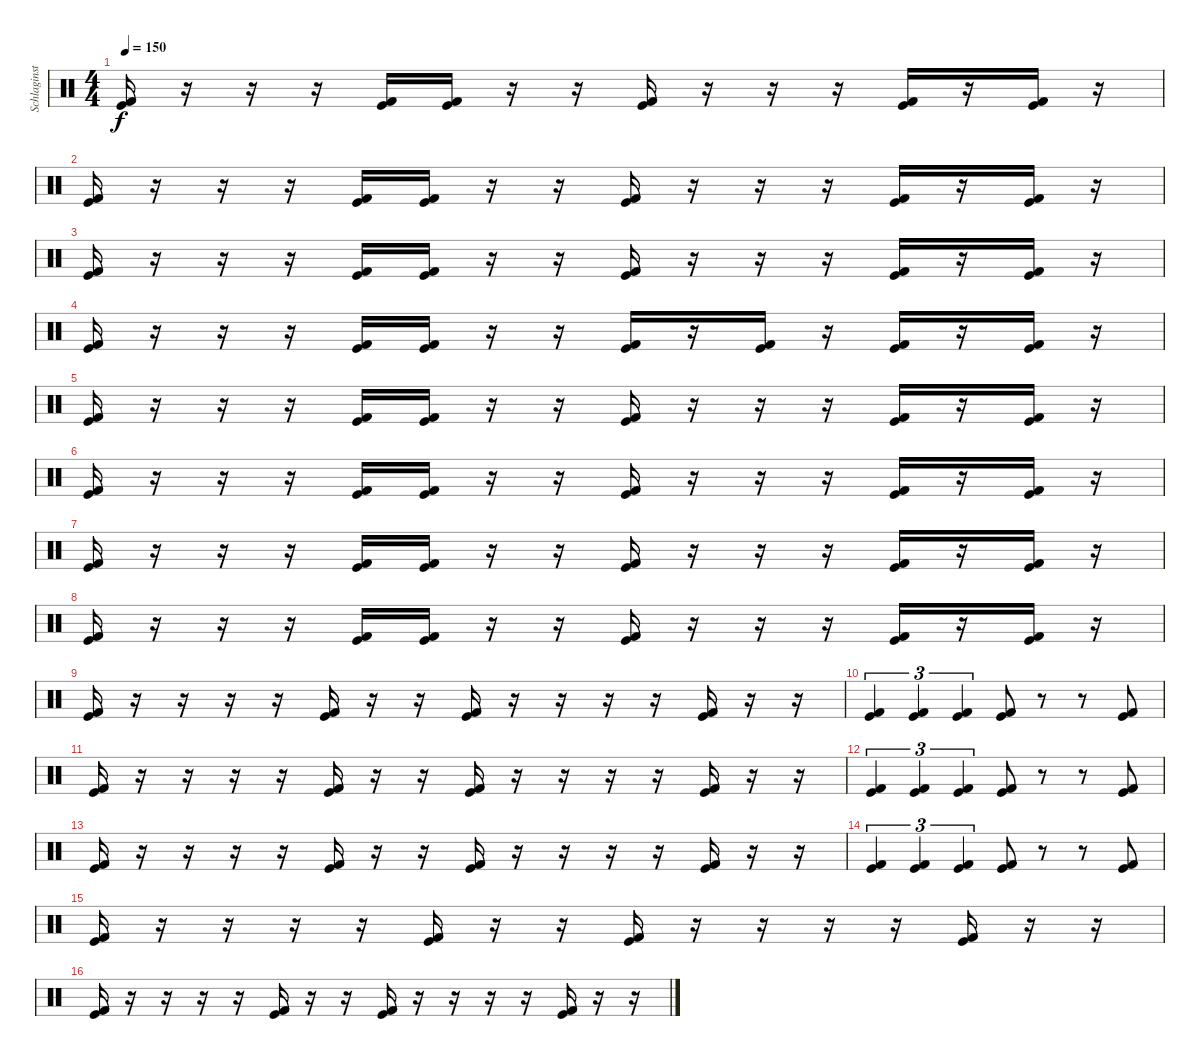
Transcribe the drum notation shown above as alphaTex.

\track ("Schlaginstrumente - Auswahl" "Schlaginst") {instrument percussion}
\staff {score}
\articulation defaults
\ts (4 4)
\tempo 150
\clef neutral
\ks c
("Kick (hit)" "Kick (hit) 2").16{dy f} r.16 r.16 r.16 ("Kick (hit)" "Kick (hit) 2").16 ("Kick (hit)" "Kick (hit) 2").16 r.16 r.16 ("Kick (hit)" "Kick (hit) 2").16 r.16 r.16 r.16 ("Kick (hit)" "Kick (hit) 2").16 r.16 ("Kick (hit)" "Kick (hit) 2").16 r.16 |
("Kick (hit)" "Kick (hit) 2").16 r.16 r.16 r.16 ("Kick (hit)" "Kick (hit) 2").16 ("Kick (hit)" "Kick (hit) 2").16 r.16 r.16 ("Kick (hit)" "Kick (hit) 2").16 r.16 r.16 r.16 ("Kick (hit)" "Kick (hit) 2").16 r.16 ("Kick (hit)" "Kick (hit) 2").16 r.16 |
("Kick (hit)" "Kick (hit) 2").16 r.16 r.16 r.16 ("Kick (hit)" "Kick (hit) 2").16 ("Kick (hit)" "Kick (hit) 2").16 r.16 r.16 ("Kick (hit)" "Kick (hit) 2").16 r.16 r.16 r.16 ("Kick (hit)" "Kick (hit) 2").16 r.16 ("Kick (hit)" "Kick (hit) 2").16 r.16 |
("Kick (hit)" "Kick (hit) 2").16 r.16 r.16 r.16 ("Kick (hit)" "Kick (hit) 2").16 ("Kick (hit)" "Kick (hit) 2").16 r.16 r.16 ("Kick (hit)" "Kick (hit) 2").16 r.16 ("Kick (hit)" "Kick (hit) 2").16 r.16 ("Kick (hit)" "Kick (hit) 2").16 r.16 ("Kick (hit)" "Kick (hit) 2").16 r.16 |
("Kick (hit)" "Kick (hit) 2").16 r.16 r.16 r.16 ("Kick (hit)" "Kick (hit) 2").16 ("Kick (hit)" "Kick (hit) 2").16 r.16 r.16 ("Kick (hit)" "Kick (hit) 2").16 r.16 r.16 r.16 ("Kick (hit)" "Kick (hit) 2").16 r.16 ("Kick (hit)" "Kick (hit) 2").16 r.16 |
("Kick (hit)" "Kick (hit) 2").16 r.16 r.16 r.16 ("Kick (hit)" "Kick (hit) 2").16 ("Kick (hit)" "Kick (hit) 2").16 r.16 r.16 ("Kick (hit)" "Kick (hit) 2").16 r.16 r.16 r.16 ("Kick (hit)" "Kick (hit) 2").16 r.16 ("Kick (hit)" "Kick (hit) 2").16 r.16 |
("Kick (hit)" "Kick (hit) 2").16 r.16 r.16 r.16 ("Kick (hit)" "Kick (hit) 2").16 ("Kick (hit)" "Kick (hit) 2").16 r.16 r.16 ("Kick (hit)" "Kick (hit) 2").16 r.16 r.16 r.16 ("Kick (hit)" "Kick (hit) 2").16 r.16 ("Kick (hit)" "Kick (hit) 2").16 r.16 |
("Kick (hit)" "Kick (hit) 2").16 r.16 r.16 r.16 ("Kick (hit)" "Kick (hit) 2").16 ("Kick (hit)" "Kick (hit) 2").16 r.16 r.16 ("Kick (hit)" "Kick (hit) 2").16 r.16 r.16 r.16 ("Kick (hit)" "Kick (hit) 2").16 r.16 ("Kick (hit)" "Kick (hit) 2").16 r.16 |
("Kick (hit)" "Kick (hit) 2").16 r.16 r.16 r.16 r.16 ("Kick (hit)" "Kick (hit) 2").16 r.16 r.16 ("Kick (hit)" "Kick (hit) 2").16 r.16 r.16 r.16 r.16 ("Kick (hit)" "Kick (hit) 2").16 r.16 r.16 |
("Kick (hit)" "Kick (hit) 2").4{tu (3 2)} ("Kick (hit)" "Kick (hit) 2").4{tu (3 2)} ("Kick (hit)" "Kick (hit) 2").4{tu (3 2)} ("Kick (hit)" "Kick (hit) 2").8 r.8 r.8 ("Kick (hit)" "Kick (hit) 2").8 |
("Kick (hit)" "Kick (hit) 2").16 r.16 r.16 r.16 r.16 ("Kick (hit)" "Kick (hit) 2").16 r.16 r.16 ("Kick (hit)" "Kick (hit) 2").16 r.16 r.16 r.16 r.16 ("Kick (hit)" "Kick (hit) 2").16 r.16 r.16 |
("Kick (hit)" "Kick (hit) 2").4{tu (3 2)} ("Kick (hit)" "Kick (hit) 2").4{tu (3 2)} ("Kick (hit)" "Kick (hit) 2").4{tu (3 2)} ("Kick (hit)" "Kick (hit) 2").8 r.8 r.8 ("Kick (hit)" "Kick (hit) 2").8 |
("Kick (hit)" "Kick (hit) 2").16 r.16 r.16 r.16 r.16 ("Kick (hit)" "Kick (hit) 2").16 r.16 r.16 ("Kick (hit)" "Kick (hit) 2").16 r.16 r.16 r.16 r.16 ("Kick (hit)" "Kick (hit) 2").16 r.16 r.16 |
("Kick (hit)" "Kick (hit) 2").4{tu (3 2)} ("Kick (hit)" "Kick (hit) 2").4{tu (3 2)} ("Kick (hit)" "Kick (hit) 2").4{tu (3 2)} ("Kick (hit)" "Kick (hit) 2").8 r.8 r.8 ("Kick (hit)" "Kick (hit) 2").8 |
("Kick (hit)" "Kick (hit) 2").16 r.16 r.16 r.16 r.16 ("Kick (hit)" "Kick (hit) 2").16 r.16 r.16 ("Kick (hit)" "Kick (hit) 2").16 r.16 r.16 r.16 r.16 ("Kick (hit)" "Kick (hit) 2").16 r.16 r.16 |
("Kick (hit)" "Kick (hit) 2").16 r.16 r.16 r.16 r.16 ("Kick (hit)" "Kick (hit) 2").16 r.16 r.16 ("Kick (hit)" "Kick (hit) 2").16 r.16 r.16 r.16 r.16 ("Kick (hit)" "Kick (hit) 2").16 r.16 r.16
